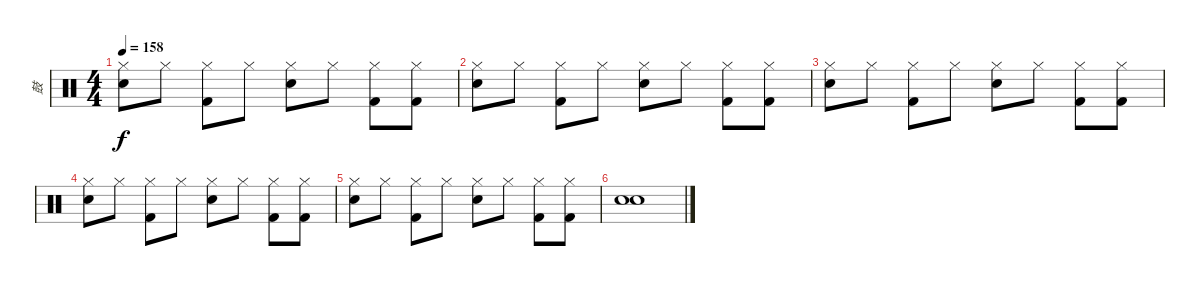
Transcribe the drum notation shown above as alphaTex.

\track ("鼓" "鼓") {instrument percussion}
\staff {score}
\articulation defaults
\ts (4 4)
\tempo 158
\clef neutral
\ks c
("Hi-Hat (closed)" "Electric Snare (hit)").8{dy f} "Hi-Hat (closed)".8 ("Hi-Hat (closed)" "Kick (hit) 2").8 "Hi-Hat (closed)".8 ("Hi-Hat (closed)" "Electric Snare (hit)").8 "Hi-Hat (closed)".8 ("Hi-Hat (closed)" "Kick (hit) 2").8 ("Hi-Hat (closed)" "Kick (hit) 2").8 |
("Hi-Hat (closed)" "Electric Snare (hit)").8 "Hi-Hat (closed)".8 ("Hi-Hat (closed)" "Kick (hit) 2").8 "Hi-Hat (closed)".8 ("Hi-Hat (closed)" "Electric Snare (hit)").8 "Hi-Hat (closed)".8 ("Hi-Hat (closed)" "Kick (hit) 2").8 ("Hi-Hat (closed)" "Kick (hit) 2").8 |
("Hi-Hat (closed)" "Electric Snare (hit)").8 "Hi-Hat (closed)".8 ("Hi-Hat (closed)" "Kick (hit) 2").8 "Hi-Hat (closed)".8 ("Hi-Hat (closed)" "Electric Snare (hit)").8 "Hi-Hat (closed)".8 ("Hi-Hat (closed)" "Kick (hit) 2").8 ("Hi-Hat (closed)" "Kick (hit) 2").8 |
("Hi-Hat (closed)" "Electric Snare (hit)").8 "Hi-Hat (closed)".8 ("Hi-Hat (closed)" "Kick (hit) 2").8 "Hi-Hat (closed)".8 ("Hi-Hat (closed)" "Electric Snare (hit)").8 "Hi-Hat (closed)".8 ("Hi-Hat (closed)" "Kick (hit) 2").8 ("Hi-Hat (closed)" "Kick (hit) 2").8 |
("Hi-Hat (closed)" "Electric Snare (hit)").8 "Hi-Hat (closed)".8 ("Hi-Hat (closed)" "Kick (hit) 2").8 "Hi-Hat (closed)".8 ("Hi-Hat (closed)" "Electric Snare (hit)").8 "Hi-Hat (closed)".8 ("Hi-Hat (closed)" "Kick (hit) 2").8 ("Hi-Hat (closed)" "Kick (hit) 2").8 |
("Snare (hit) 2" "Electric Snare (hit)").1
